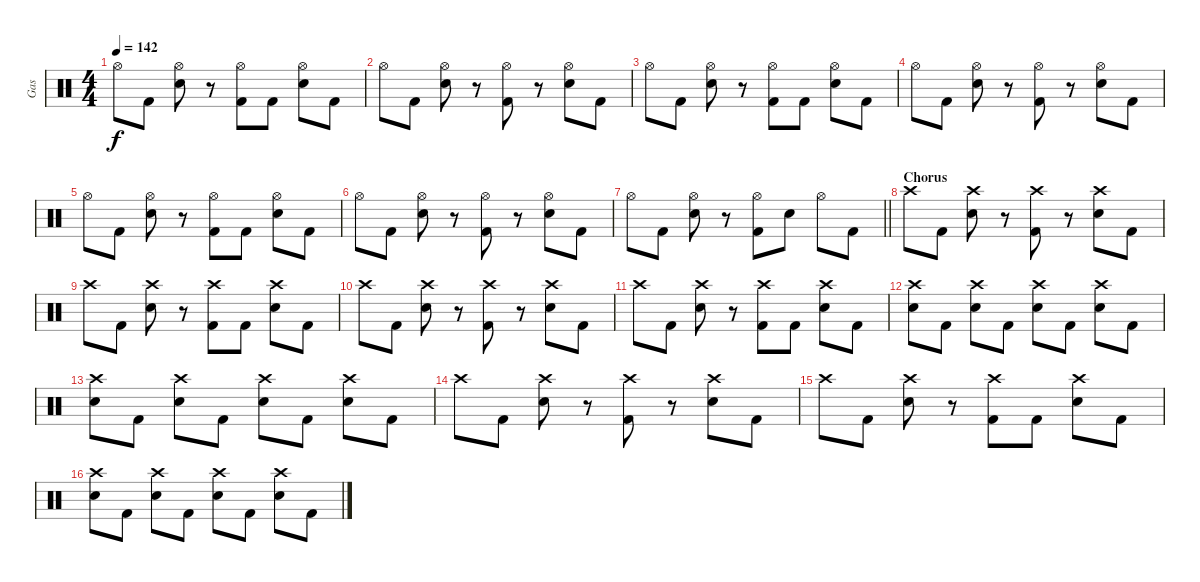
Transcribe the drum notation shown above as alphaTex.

\track ("Gas" "Gas") {instrument percussion}
\staff {score}
\articulation defaults
\ts (4 4)
\tempo 142
\clef neutral
\ks c "Hi-Hat (open)".8{dy f} "Kick (hit) 2".8
("Hi-Hat (open)" "Electric Snare (hit)").8 r.8 ("Hi-Hat (open)" "Kick (hit) 2").8 "Kick (hit) 2".8 ("Hi-Hat (open)" "Electric Snare (hit)").8 "Kick (hit) 2".8 |
"Hi-Hat (open)".8 "Kick (hit) 2".8 ("Hi-Hat (open)" "Electric Snare (hit)").8 r.8 ("Hi-Hat (open)" "Kick (hit) 2").8 r.8 ("Hi-Hat (open)" "Electric Snare (hit)").8 "Kick (hit) 2".8 |
"Hi-Hat (open)".8 "Kick (hit) 2".8 ("Hi-Hat (open)" "Electric Snare (hit)").8 r.8 ("Hi-Hat (open)" "Kick (hit) 2").8 "Kick (hit) 2".8 ("Hi-Hat (open)" "Electric Snare (hit)").8 "Kick (hit) 2".8 |
"Hi-Hat (open)".8 "Kick (hit) 2".8 ("Hi-Hat (open)" "Electric Snare (hit)").8 r.8 ("Hi-Hat (open)" "Kick (hit) 2").8 r.8 ("Hi-Hat (open)" "Electric Snare (hit)").8 "Kick (hit) 2".8 |
"Hi-Hat (open)".8 "Kick (hit) 2".8 ("Hi-Hat (open)" "Electric Snare (hit)").8 r.8 ("Hi-Hat (open)" "Kick (hit) 2").8 "Kick (hit) 2".8 ("Hi-Hat (open)" "Electric Snare (hit)").8 "Kick (hit) 2".8 |
"Hi-Hat (open)".8 "Kick (hit) 2".8 ("Hi-Hat (open)" "Electric Snare (hit)").8 r.8 ("Hi-Hat (open)" "Kick (hit) 2").8 r.8 ("Hi-Hat (open)" "Electric Snare (hit)").8 "Kick (hit) 2".8 |
\barLineRight lightlight "Hi-Hat (open)".8 "Kick (hit) 2".8
("Hi-Hat (open)" "Electric Snare (hit)").8 r.8 ("Hi-Hat (open)" "Kick (hit) 2").8 "Electric Snare (hit)".8 "Hi-Hat (open)".8 "Kick (hit) 2".8 |
\section ("" "Chorus")
"Crash high (hit)".8 "Kick (hit) 2".8 ("Crash high (hit)" "Electric Snare (hit)").8 r.8 ("Crash high (hit)" "Kick (hit) 2").8 r.8 ("Crash high (hit)" "Electric Snare (hit)").8 "Kick (hit) 2".8 |
"Crash high (hit)".8 "Kick (hit) 2".8 ("Crash high (hit)" "Electric Snare (hit)").8 r.8 ("Crash high (hit)" "Kick (hit) 2").8 "Kick (hit) 2".8 ("Crash high (hit)" "Electric Snare (hit)").8 "Kick (hit) 2".8 |
"Crash high (hit)".8 "Kick (hit) 2".8 ("Crash high (hit)" "Electric Snare (hit)").8 r.8 ("Crash high (hit)" "Kick (hit) 2").8 r.8 ("Crash high (hit)" "Electric Snare (hit)").8 "Kick (hit) 2".8 |
"Crash high (hit)".8 "Kick (hit) 2".8 ("Crash high (hit)" "Electric Snare (hit)").8 r.8 ("Crash high (hit)" "Kick (hit) 2").8 "Kick (hit) 2".8 ("Crash high (hit)" "Electric Snare (hit)").8 "Kick (hit) 2".8 |
("Crash high (hit)" "Electric Snare (hit)").8 "Kick (hit) 2".8 ("Crash high (hit)" "Electric Snare (hit)").8 "Kick (hit) 2".8 ("Crash high (hit)" "Electric Snare (hit)").8 "Kick (hit) 2".8 ("Crash high (hit)" "Electric Snare (hit)").8 "Kick (hit) 2".8 |
("Crash high (hit)" "Electric Snare (hit)").8 "Kick (hit) 2".8 ("Crash high (hit)" "Electric Snare (hit)").8 "Kick (hit) 2".8 ("Crash high (hit)" "Electric Snare (hit)").8 "Kick (hit) 2".8 ("Crash high (hit)" "Electric Snare (hit)").8 "Kick (hit) 2".8 |
"Crash high (hit)".8 "Kick (hit) 2".8 ("Crash high (hit)" "Electric Snare (hit)").8 r.8 ("Crash high (hit)" "Kick (hit) 2").8 r.8 ("Crash high (hit)" "Electric Snare (hit)").8 "Kick (hit) 2".8 |
"Crash high (hit)".8 "Kick (hit) 2".8 ("Crash high (hit)" "Electric Snare (hit)").8 r.8 ("Crash high (hit)" "Kick (hit) 2").8 "Kick (hit) 2".8 ("Crash high (hit)" "Electric Snare (hit)").8 "Kick (hit) 2".8 |
("Crash high (hit)" "Electric Snare (hit)").8 "Kick (hit) 2".8 ("Crash high (hit)" "Electric Snare (hit)").8 "Kick (hit) 2".8 ("Crash high (hit)" "Electric Snare (hit)").8 "Kick (hit) 2".8 ("Crash high (hit)" "Electric Snare (hit)").8 "Kick (hit) 2".8
